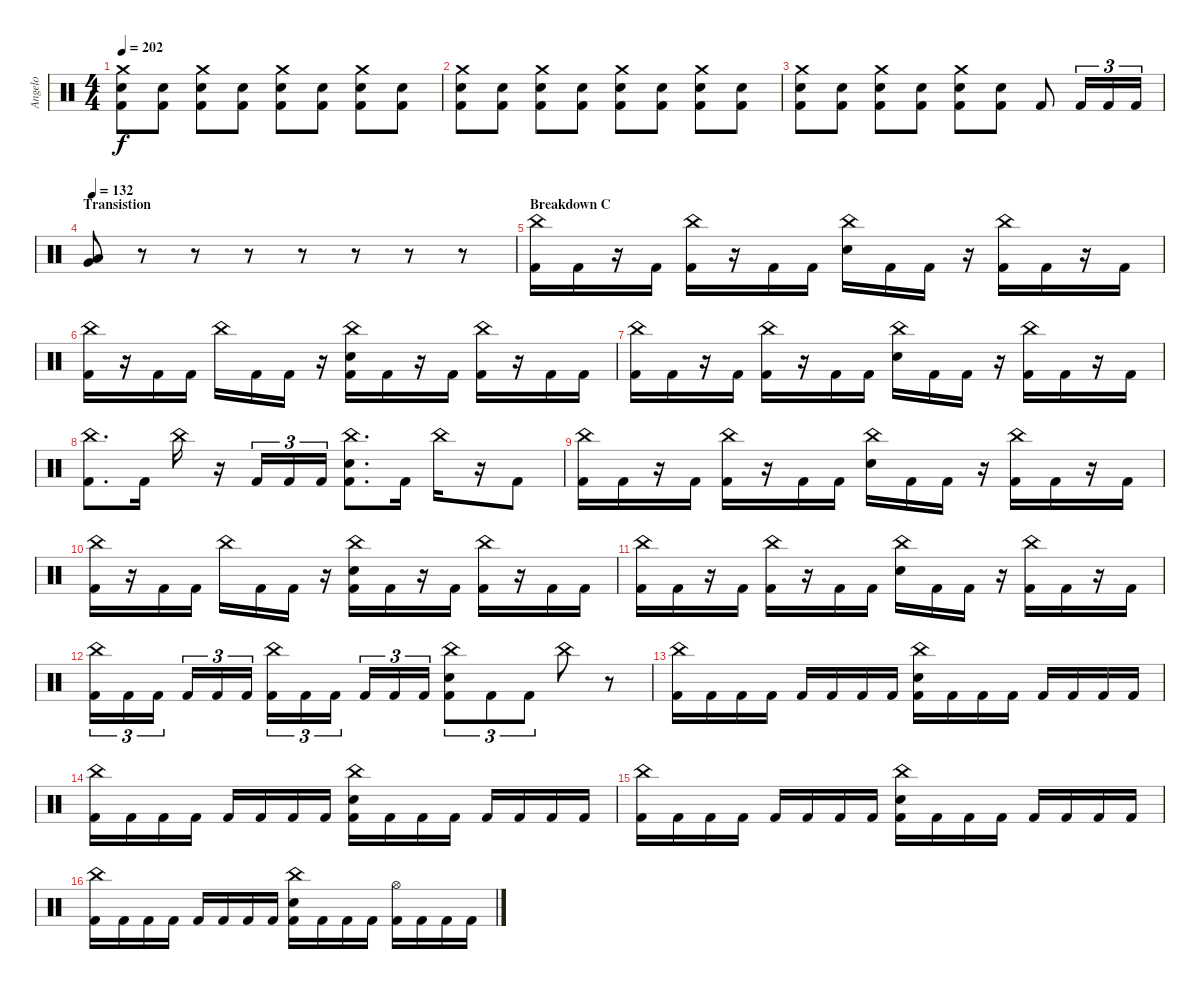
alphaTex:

\track ("Angelo" "Angelo") {instrument percussion}
\staff {score}
\articulation defaults
\ts (4 4)
\tempo 202
\clef neutral
\ks c
("Crash medium (hit)" "Electric Snare (hit)" "Kick (hit) 2").8{dy f} ("Electric Snare (hit)" "Kick (hit) 2").8 ("Crash medium (hit)" "Electric Snare (hit)" "Kick (hit) 2").8 ("Electric Snare (hit)" "Kick (hit) 2").8 ("Crash medium (hit)" "Electric Snare (hit)" "Kick (hit) 2").8 ("Electric Snare (hit)" "Kick (hit) 2").8 ("Crash medium (hit)" "Electric Snare (hit)" "Kick (hit) 2").8 ("Electric Snare (hit)" "Kick (hit) 2").8 |
("Crash medium (hit)" "Electric Snare (hit)" "Kick (hit) 2").8 ("Electric Snare (hit)" "Kick (hit) 2").8 ("Crash medium (hit)" "Electric Snare (hit)" "Kick (hit) 2").8 ("Electric Snare (hit)" "Kick (hit) 2").8 ("Crash medium (hit)" "Electric Snare (hit)" "Kick (hit) 2").8 ("Electric Snare (hit)" "Kick (hit) 2").8 ("Crash medium (hit)" "Electric Snare (hit)" "Kick (hit) 2").8 ("Electric Snare (hit)" "Kick (hit) 2").8 |
("Crash medium (hit)" "Electric Snare (hit)" "Kick (hit) 2").8 ("Electric Snare (hit)" "Kick (hit) 2").8 ("Crash medium (hit)" "Electric Snare (hit)" "Kick (hit) 2").8 ("Electric Snare (hit)" "Kick (hit) 2").8 ("Crash medium (hit)" "Electric Snare (hit)" "Kick (hit) 2").8 ("Electric Snare (hit)" "Kick (hit) 2").8 "Kick (hit) 2".8 "Kick (hit) 2".16{tu (3 2)} "Kick (hit) 2".16{tu (3 2)} "Kick (hit) 2".16{tu (3 2)} |
\section ("" "Transistion ")
\tempo 132
("Very Low Tom (hit)" "Low Floor Tom (hit)").8 r.8 r.8 r.8 r.8 r.8 r.8 r.8 |
\section ("" "Breakdown C")
("China (hit)" "Kick (hit) 2").16 "Kick (hit) 2".16 r.16 "Kick (hit) 2".16 ("China (hit)" "Kick (hit) 2").16 r.16 "Kick (hit) 2".16 "Kick (hit) 2".16 ("China (hit)" "Electric Snare (hit)").16 "Kick (hit) 2".16 "Kick (hit) 2".16 r.16 ("China (hit)" "Kick (hit) 2").16 "Kick (hit) 2".16 r.16 "Kick (hit) 2".16 |
("China (hit)" "Kick (hit) 2").16 r.16 "Kick (hit) 2".16 "Kick (hit) 2".16 "China (hit)".16 "Kick (hit) 2".16 "Kick (hit) 2".16 r.16 ("China (hit)" "Electric Snare (hit)" "Kick (hit) 2").16 "Kick (hit) 2".16 r.16 "Kick (hit) 2".16 ("China (hit)" "Kick (hit) 2").16 r.16 "Kick (hit) 2".16 "Kick (hit) 2".16 |
("China (hit)" "Kick (hit) 2").16 "Kick (hit) 2".16 r.16 "Kick (hit) 2".16 ("China (hit)" "Kick (hit) 2").16 r.16 "Kick (hit) 2".16 "Kick (hit) 2".16 ("China (hit)" "Electric Snare (hit)").16 "Kick (hit) 2".16 "Kick (hit) 2".16 r.16 ("China (hit)" "Kick (hit) 2").16 "Kick (hit) 2".16 r.16 "Kick (hit) 2".16 |
("China (hit)" "Kick (hit) 2").8{d} "Kick (hit) 2".16 "China (hit)".16 r.16 "Kick (hit) 2".16{tu (3 2)} "Kick (hit) 2".16{tu (3 2)} "Kick (hit) 2".16{tu (3 2)} ("China (hit)" "Electric Snare (hit)" "Kick (hit) 2").8{d} "Kick (hit) 2".16 "China (hit)".16 r.16 "Kick (hit) 2".8 |
("China (hit)" "Kick (hit) 2").16 "Kick (hit) 2".16 r.16 "Kick (hit) 2".16 ("China (hit)" "Kick (hit) 2").16 r.16 "Kick (hit) 2".16 "Kick (hit) 2".16 ("China (hit)" "Electric Snare (hit)").16 "Kick (hit) 2".16 "Kick (hit) 2".16 r.16 ("China (hit)" "Kick (hit) 2").16 "Kick (hit) 2".16 r.16 "Kick (hit) 2".16 |
("China (hit)" "Kick (hit) 2").16 r.16 "Kick (hit) 2".16 "Kick (hit) 2".16 "China (hit)".16 "Kick (hit) 2".16 "Kick (hit) 2".16 r.16 ("China (hit)" "Electric Snare (hit)" "Kick (hit) 2").16 "Kick (hit) 2".16 r.16 "Kick (hit) 2".16 ("China (hit)" "Kick (hit) 2").16 r.16 "Kick (hit) 2".16 "Kick (hit) 2".16 |
("China (hit)" "Kick (hit) 2").16 "Kick (hit) 2".16 r.16 "Kick (hit) 2".16 ("China (hit)" "Kick (hit) 2").16 r.16 "Kick (hit) 2".16 "Kick (hit) 2".16 ("China (hit)" "Electric Snare (hit)").16 "Kick (hit) 2".16 "Kick (hit) 2".16 r.16 ("China (hit)" "Kick (hit) 2").16 "Kick (hit) 2".16 r.16 "Kick (hit) 2".16 |
("China (hit)" "Kick (hit) 2").16{tu (3 2)} "Kick (hit) 2".16{tu (3 2)} "Kick (hit) 2".16{tu (3 2)} "Kick (hit) 2".16{tu (3 2)} "Kick (hit) 2".16{tu (3 2)} "Kick (hit) 2".16{tu (3 2)} ("China (hit)" "Kick (hit) 2").16{tu (3 2)} "Kick (hit) 2".16{tu (3 2)} "Kick (hit) 2".16{tu (3 2)} "Kick (hit) 2".16{tu (3 2)} "Kick (hit) 2".16{tu (3 2)} "Kick (hit) 2".16{tu (3 2)} ("China (hit)" "Electric Snare (hit)" "Kick (hit) 2").8{tu (3 2)} "Kick (hit) 2".8{tu (3 2)} "Kick (hit) 2".8{tu (3 2)} "China (hit)".8 r.8 |
("China (hit)" "Kick (hit) 2").16 "Kick (hit) 2".16 "Kick (hit) 2".16 "Kick (hit) 2".16 "Kick (hit) 2".16 "Kick (hit) 2".16 "Kick (hit) 2".16 "Kick (hit) 2".16 ("China (hit)" "Electric Snare (hit)" "Kick (hit) 2").16 "Kick (hit) 2".16 "Kick (hit) 2".16 "Kick (hit) 2".16 "Kick (hit) 2".16 "Kick (hit) 2".16 "Kick (hit) 2".16 "Kick (hit) 2".16 |
("China (hit)" "Kick (hit) 2").16 "Kick (hit) 2".16 "Kick (hit) 2".16 "Kick (hit) 2".16 "Kick (hit) 2".16 "Kick (hit) 2".16 "Kick (hit) 2".16 "Kick (hit) 2".16 ("China (hit)" "Electric Snare (hit)" "Kick (hit) 2").16 "Kick (hit) 2".16 "Kick (hit) 2".16 "Kick (hit) 2".16 "Kick (hit) 2".16 "Kick (hit) 2".16 "Kick (hit) 2".16 "Kick (hit) 2".16 |
("China (hit)" "Kick (hit) 2").16 "Kick (hit) 2".16 "Kick (hit) 2".16 "Kick (hit) 2".16 "Kick (hit) 2".16 "Kick (hit) 2".16 "Kick (hit) 2".16 "Kick (hit) 2".16 ("China (hit)" "Electric Snare (hit)" "Kick (hit) 2").16 "Kick (hit) 2".16 "Kick (hit) 2".16 "Kick (hit) 2".16 "Kick (hit) 2".16 "Kick (hit) 2".16 "Kick (hit) 2".16 "Kick (hit) 2".16 |
("China (hit)" "Kick (hit) 2").16 "Kick (hit) 2".16 "Kick (hit) 2".16 "Kick (hit) 2".16 "Kick (hit) 2".16 "Kick (hit) 2".16 "Kick (hit) 2".16 "Kick (hit) 2".16 ("China (hit)" "Electric Snare (hit)" "Kick (hit) 2").16 "Kick (hit) 2".16 "Kick (hit) 2".16 "Kick (hit) 2".16 ("Hi-Hat (open)" "Kick (hit) 2").16 "Kick (hit) 2".16 "Kick (hit) 2".16 "Kick (hit) 2".16
